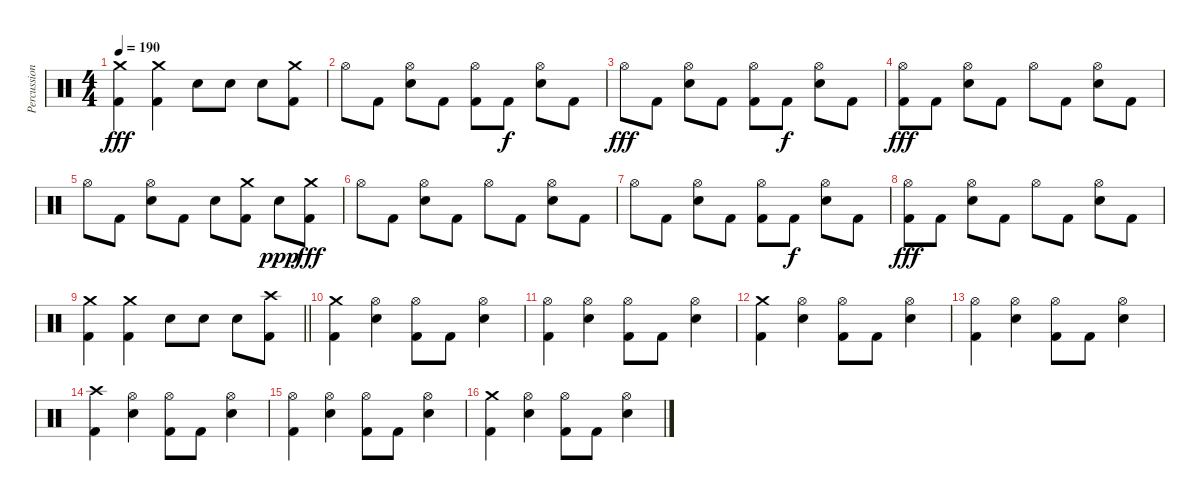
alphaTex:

\track ("Percussion" "Percussion") {instrument percussion}
\staff {score}
\articulation defaults
\ts (4 4)
\tempo 190
\clef neutral
\ks c
("Crash medium (hit)" "Kick (hit) 2").4{dy fff} ("Crash medium (hit)" "Kick (hit) 2").4 "Electric Snare (hit)".8 "Electric Snare (hit)".8 "Electric Snare (hit)".8 ("Crash medium (hit)" "Kick (hit) 2").8 |
"Hi-Hat (open)".8 "Kick (hit) 2".8 ("Hi-Hat (open)" "Electric Snare (hit)").8 "Kick (hit) 2".8 ("Hi-Hat (open)" "Kick (hit) 2").8 "Kick (hit) 2".8{dy f} ("Hi-Hat (open)" "Electric Snare (hit)").8 "Kick (hit) 2".8 |
"Hi-Hat (open)".8{dy fff} "Kick (hit) 2".8 ("Hi-Hat (open)" "Electric Snare (hit)").8 "Kick (hit) 2".8 ("Hi-Hat (open)" "Kick (hit) 2").8 "Kick (hit) 2".8{dy f} ("Hi-Hat (open)" "Electric Snare (hit)").8 "Kick (hit) 2".8 |
("Hi-Hat (open)" "Kick (hit) 2").8{dy fff} "Kick (hit) 2".8 ("Hi-Hat (open)" "Electric Snare (hit)").8 "Kick (hit) 2".8 "Hi-Hat (open)".8 "Kick (hit) 2".8 ("Hi-Hat (open)" "Electric Snare (hit)").8 "Kick (hit) 2".8 |
"Hi-Hat (open)".8 "Kick (hit) 2".8 ("Hi-Hat (open)" "Electric Snare (hit)").8 "Kick (hit) 2".8 "Electric Snare (hit)".8 ("Crash medium (hit)" "Kick (hit) 2").8 "Electric Snare (hit)".8{dy ppp} ("Crash medium (hit)" "Kick (hit) 2").8{dy fff} |
"Hi-Hat (open)".8 "Kick (hit) 2".8 ("Hi-Hat (open)" "Electric Snare (hit)").8 "Kick (hit) 2".8 "Hi-Hat (open)".8 "Kick (hit) 2".8 ("Hi-Hat (open)" "Electric Snare (hit)").8 "Kick (hit) 2".8 |
"Hi-Hat (open)".8 "Kick (hit) 2".8 ("Hi-Hat (open)" "Electric Snare (hit)").8 "Kick (hit) 2".8 ("Hi-Hat (open)" "Kick (hit) 2").8 "Kick (hit) 2".8{dy f} ("Hi-Hat (open)" "Electric Snare (hit)").8 "Kick (hit) 2".8 |
("Hi-Hat (open)" "Kick (hit) 2").8{dy fff} "Kick (hit) 2".8 ("Hi-Hat (open)" "Electric Snare (hit)").8 "Kick (hit) 2".8 "Hi-Hat (open)".8 "Kick (hit) 2".8 ("Hi-Hat (open)" "Electric Snare (hit)").8 "Kick (hit) 2".8 |
\barLineRight lightlight
("Crash medium (hit)" "Kick (hit) 2").4 ("Crash medium (hit)" "Kick (hit) 2").4 "Electric Snare (hit)".8 "Electric Snare (hit)".8 "Electric Snare (hit)".8 ("Crash high (hit)" "Kick (hit) 2").8 |
("Crash medium (hit)" "Kick (hit) 2").4 ("Hi-Hat (open)" "Electric Snare (hit)").4 ("Hi-Hat (open)" "Kick (hit) 2").8 "Kick (hit) 2".8 ("Hi-Hat (open)" "Electric Snare (hit)").4 |
("Hi-Hat (open)" "Kick (hit) 2").4 ("Hi-Hat (open)" "Electric Snare (hit)").4 ("Hi-Hat (open)" "Kick (hit) 2").8 "Kick (hit) 2".8 ("Hi-Hat (open)" "Electric Snare (hit)").4 |
("Crash medium (hit)" "Kick (hit) 2").4 ("Hi-Hat (open)" "Electric Snare (hit)").4 ("Hi-Hat (open)" "Kick (hit) 2").8 "Kick (hit) 2".8 ("Hi-Hat (open)" "Electric Snare (hit)").4 |
("Hi-Hat (open)" "Kick (hit) 2").4 ("Hi-Hat (open)" "Electric Snare (hit)").4 ("Hi-Hat (open)" "Kick (hit) 2").8 "Kick (hit) 2".8 ("Hi-Hat (open)" "Electric Snare (hit)").4 |
("Crash high (hit)" "Kick (hit) 2").4 ("Hi-Hat (open)" "Electric Snare (hit)").4 ("Hi-Hat (open)" "Kick (hit) 2").8 "Kick (hit) 2".8 ("Hi-Hat (open)" "Electric Snare (hit)").4 |
("Hi-Hat (open)" "Kick (hit) 2").4 ("Hi-Hat (open)" "Electric Snare (hit)").4 ("Hi-Hat (open)" "Kick (hit) 2").8 "Kick (hit) 2".8 ("Hi-Hat (open)" "Electric Snare (hit)").4 |
("Crash medium (hit)" "Kick (hit) 2").4 ("Hi-Hat (open)" "Electric Snare (hit)").4 ("Hi-Hat (open)" "Kick (hit) 2").8 "Kick (hit) 2".8 ("Hi-Hat (open)" "Electric Snare (hit)").4
